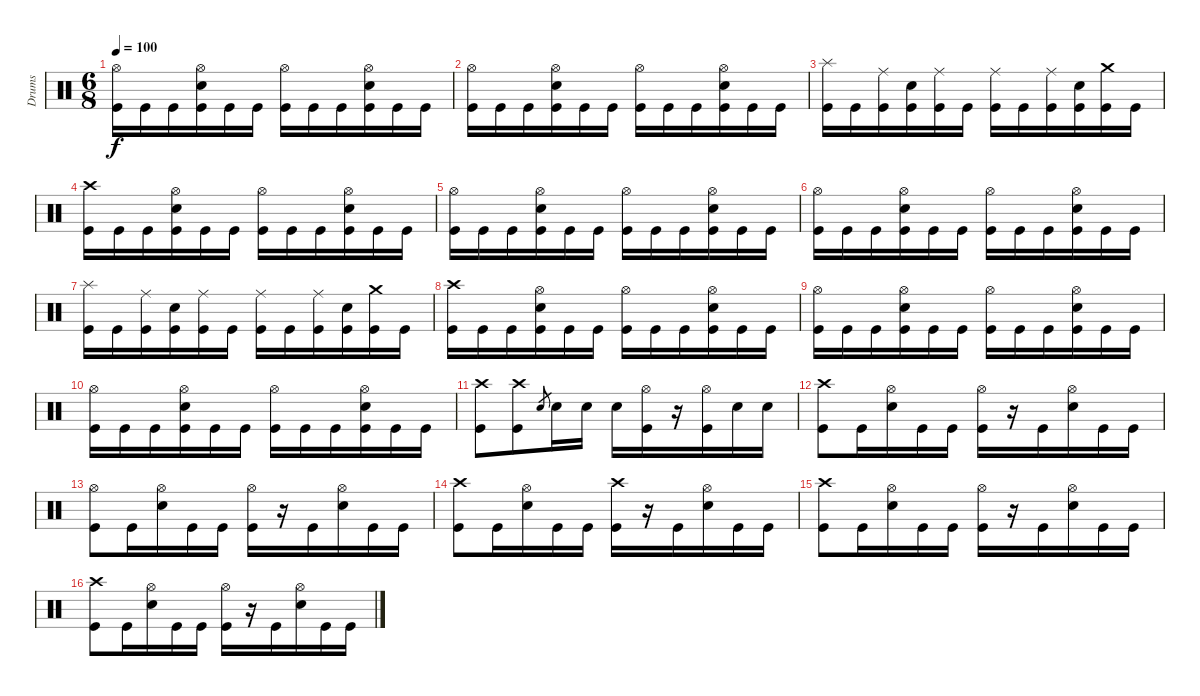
\track ("Drums" "Drums") {instrument percussion}
\staff {score}
\articulation defaults
\ts (6 8)
\tempo 100
\clef neutral
\ks c
("Hi-Hat (open)" "Kick (hit)").16{dy f} "Kick (hit)".16 "Kick (hit)".16 ("Hi-Hat (open)" "Electric Snare (hit)" "Kick (hit)").16 "Kick (hit)".16 "Kick (hit)".16 ("Hi-Hat (open)" "Kick (hit)").16 "Kick (hit)".16 "Kick (hit)".16 ("Hi-Hat (open)" "Electric Snare (hit)" "Kick (hit)").16 "Kick (hit)".16 "Kick (hit)".16 |
("Hi-Hat (open)" "Kick (hit)").16 "Kick (hit)".16 "Kick (hit)".16 ("Hi-Hat (open)" "Electric Snare (hit)" "Kick (hit)").16 "Kick (hit)".16 "Kick (hit)".16 ("Hi-Hat (open)" "Kick (hit)").16 "Kick (hit)".16 "Kick (hit)".16 ("Hi-Hat (open)" "Electric Snare (hit)" "Kick (hit)").16 "Kick (hit)".16 "Kick (hit)".16 |
("Splash (hit)" "Kick (hit)").16 "Kick (hit)".16 ("Ride (middle)" "Kick (hit)").16 ("Electric Snare (hit)" "Kick (hit)").16 ("Ride (middle)" "Kick (hit)").16 "Kick (hit)".16 ("Ride (middle)" "Kick (hit)").16 "Kick (hit)".16 ("Ride (middle)" "Kick (hit)").16 ("Electric Snare (hit)" "Kick (hit)").16 ("Crash medium (hit)" "Kick (hit)").16 "Kick (hit)".16 |
("Crash high (hit)" "Kick (hit)").16 "Kick (hit)".16 "Kick (hit)".16 ("Hi-Hat (open)" "Electric Snare (hit)" "Kick (hit)").16 "Kick (hit)".16 "Kick (hit)".16 ("Hi-Hat (open)" "Kick (hit)").16 "Kick (hit)".16 "Kick (hit)".16 ("Hi-Hat (open)" "Electric Snare (hit)" "Kick (hit)").16 "Kick (hit)".16 "Kick (hit)".16 |
("Hi-Hat (open)" "Kick (hit)").16 "Kick (hit)".16 "Kick (hit)".16 ("Hi-Hat (open)" "Electric Snare (hit)" "Kick (hit)").16 "Kick (hit)".16 "Kick (hit)".16 ("Hi-Hat (open)" "Kick (hit)").16 "Kick (hit)".16 "Kick (hit)".16 ("Hi-Hat (open)" "Electric Snare (hit)" "Kick (hit)").16 "Kick (hit)".16 "Kick (hit)".16 |
("Hi-Hat (open)" "Kick (hit)").16 "Kick (hit)".16 "Kick (hit)".16 ("Hi-Hat (open)" "Electric Snare (hit)" "Kick (hit)").16 "Kick (hit)".16 "Kick (hit)".16 ("Hi-Hat (open)" "Kick (hit)").16 "Kick (hit)".16 "Kick (hit)".16 ("Hi-Hat (open)" "Electric Snare (hit)" "Kick (hit)").16 "Kick (hit)".16 "Kick (hit)".16 |
("Splash (hit)" "Kick (hit)").16 "Kick (hit)".16 ("Ride (middle)" "Kick (hit)").16 ("Electric Snare (hit)" "Kick (hit)").16 ("Ride (middle)" "Kick (hit)").16 "Kick (hit)".16 ("Ride (middle)" "Kick (hit)").16 "Kick (hit)".16 ("Ride (middle)" "Kick (hit)").16 ("Electric Snare (hit)" "Kick (hit)").16 ("Crash medium (hit)" "Kick (hit)").16 "Kick (hit)".16 |
("Crash high (hit)" "Kick (hit)").16 "Kick (hit)".16 "Kick (hit)".16 ("Hi-Hat (open)" "Electric Snare (hit)" "Kick (hit)").16 "Kick (hit)".16 "Kick (hit)".16 ("Hi-Hat (open)" "Kick (hit)").16 "Kick (hit)".16 "Kick (hit)".16 ("Hi-Hat (open)" "Electric Snare (hit)" "Kick (hit)").16 "Kick (hit)".16 "Kick (hit)".16 |
("Hi-Hat (open)" "Kick (hit)").16 "Kick (hit)".16 "Kick (hit)".16 ("Hi-Hat (open)" "Electric Snare (hit)" "Kick (hit)").16 "Kick (hit)".16 "Kick (hit)".16 ("Hi-Hat (open)" "Kick (hit)").16 "Kick (hit)".16 "Kick (hit)".16 ("Hi-Hat (open)" "Electric Snare (hit)" "Kick (hit)").16 "Kick (hit)".16 "Kick (hit)".16 |
("Hi-Hat (open)" "Kick (hit)").16 "Kick (hit)".16 "Kick (hit)".16 ("Hi-Hat (open)" "Electric Snare (hit)" "Kick (hit)").16 "Kick (hit)".16 "Kick (hit)".16 ("Hi-Hat (open)" "Kick (hit)").16 "Kick (hit)".16 "Kick (hit)".16 ("Hi-Hat (open)" "Electric Snare (hit)" "Kick (hit)").16 "Kick (hit)".16 "Kick (hit)".16 |
("Crash high (hit)" "Kick (hit)").8 ("Crash high (hit)" "Kick (hit)").8 "Electric Snare (hit)".8{gr} "Electric Snare (hit)".16 "Electric Snare (hit)".16 "Electric Snare (hit)".16 ("Hi-Hat (open)" "Kick (hit)").16 r.16 ("Hi-Hat (open)" "Kick (hit)").16 "Electric Snare (hit)".16 "Electric Snare (hit)".16 |
("Crash high (hit)" "Kick (hit)").8 "Kick (hit)".16 ("Hi-Hat (open)" "Electric Snare (hit)").16 "Kick (hit)".16 "Kick (hit)".16 ("Hi-Hat (open)" "Kick (hit)").16 r.16 "Kick (hit)".16 ("Hi-Hat (open)" "Electric Snare (hit)").16 "Kick (hit)".16 "Kick (hit)".16 |
("Hi-Hat (open)" "Kick (hit)").8 "Kick (hit)".16 ("Hi-Hat (open)" "Electric Snare (hit)").16 "Kick (hit)".16 "Kick (hit)".16 ("Hi-Hat (open)" "Kick (hit)").16 r.16 "Kick (hit)".16 ("Hi-Hat (open)" "Electric Snare (hit)").16 "Kick (hit)".16 "Kick (hit)".16 |
("Crash high (hit)" "Kick (hit)").8 "Kick (hit)".16 ("Hi-Hat (open)" "Electric Snare (hit)").16 "Kick (hit)".16 "Kick (hit)".16 ("Crash high (hit)" "Kick (hit)").16 r.16 "Kick (hit)".16 ("Hi-Hat (open)" "Electric Snare (hit)").16 "Kick (hit)".16 "Kick (hit)".16 |
("Crash high (hit)" "Kick (hit)").8 "Kick (hit)".16 ("Hi-Hat (open)" "Electric Snare (hit)").16 "Kick (hit)".16 "Kick (hit)".16 ("Hi-Hat (open)" "Kick (hit)").16 r.16 "Kick (hit)".16 ("Hi-Hat (open)" "Electric Snare (hit)").16 "Kick (hit)".16 "Kick (hit)".16 |
("Crash high (hit)" "Kick (hit)").8 "Kick (hit)".16 ("Hi-Hat (open)" "Electric Snare (hit)").16 "Kick (hit)".16 "Kick (hit)".16 ("Hi-Hat (open)" "Kick (hit)").16 r.16 "Kick (hit)".16 ("Hi-Hat (open)" "Electric Snare (hit)").16 "Kick (hit)".16 "Kick (hit)".16
